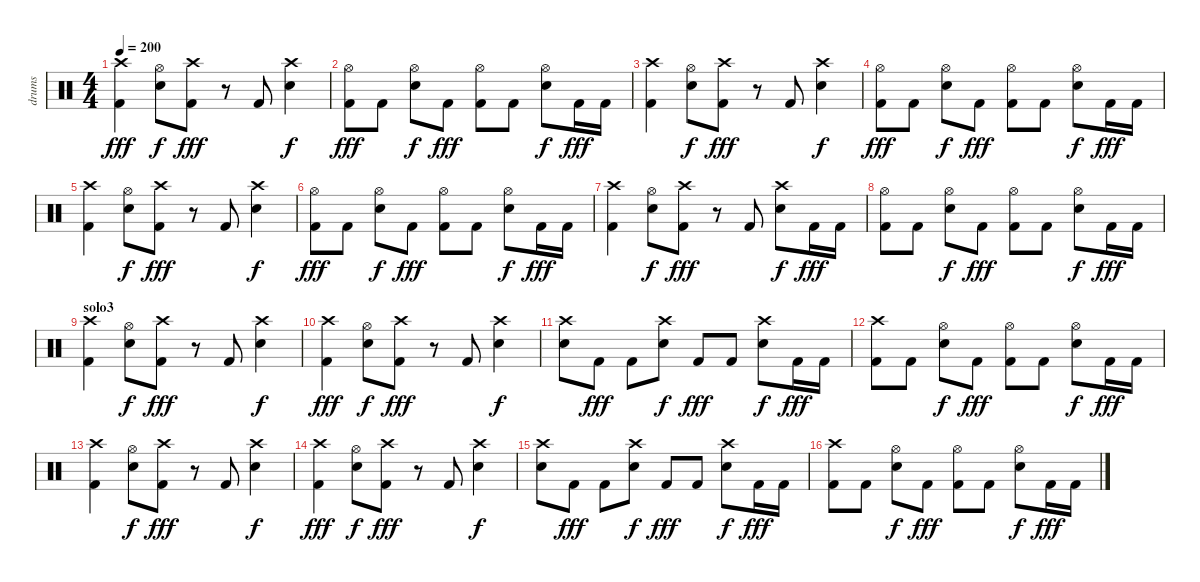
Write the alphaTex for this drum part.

\track ("drums" "drums") {instrument percussion}
\staff {score}
\articulation defaults
\ts (4 4)
\tempo 200
\clef neutral
\ks c
("Crash high (hit)" "Kick (hit) 2").4{dy fff} ("Hi-Hat (open)" "Snare (hit) 2").8{dy f} ("Crash high (hit)" "Kick (hit) 2").8{dy fff} r.8 "Kick (hit) 2".8 ("Crash high (hit)" "Snare (hit) 2").4{dy f} |
("Hi-Hat (open)" "Kick (hit) 2").8{dy fff} "Kick (hit) 2".8 ("Hi-Hat (open)" "Snare (hit) 2").8{dy f} "Kick (hit) 2".8{dy fff} ("Hi-Hat (open)" "Kick (hit) 2").8 "Kick (hit) 2".8 ("Hi-Hat (open)" "Snare (hit) 2").8{dy f} "Kick (hit) 2".16{dy fff} "Kick (hit) 2".16 |
("Crash high (hit)" "Kick (hit) 2").4 ("Hi-Hat (open)" "Snare (hit) 2").8{dy f} ("Crash high (hit)" "Kick (hit) 2").8{dy fff} r.8 "Kick (hit) 2".8 ("Crash high (hit)" "Snare (hit) 2").4{dy f} |
("Hi-Hat (open)" "Kick (hit) 2").8{dy fff} "Kick (hit) 2".8 ("Hi-Hat (open)" "Snare (hit) 2").8{dy f} "Kick (hit) 2".8{dy fff} ("Hi-Hat (open)" "Kick (hit) 2").8 "Kick (hit) 2".8 ("Hi-Hat (open)" "Snare (hit) 2").8{dy f} "Kick (hit) 2".16{dy fff} "Kick (hit) 2".16 |
("Crash high (hit)" "Kick (hit) 2").4 ("Hi-Hat (open)" "Snare (hit) 2").8{dy f} ("Crash high (hit)" "Kick (hit) 2").8{dy fff} r.8 "Kick (hit) 2".8 ("Crash high (hit)" "Snare (hit) 2").4{dy f} |
("Hi-Hat (open)" "Kick (hit) 2").8{dy fff} "Kick (hit) 2".8 ("Hi-Hat (open)" "Snare (hit) 2").8{dy f} "Kick (hit) 2".8{dy fff} ("Hi-Hat (open)" "Kick (hit) 2").8 "Kick (hit) 2".8 ("Hi-Hat (open)" "Snare (hit) 2").8{dy f} "Kick (hit) 2".16{dy fff} "Kick (hit) 2".16 |
("Crash high (hit)" "Kick (hit) 2").4 ("Hi-Hat (open)" "Snare (hit) 2").8{dy f} ("Crash high (hit)" "Kick (hit) 2").8{dy fff} r.8 "Kick (hit) 2".8 ("Crash high (hit)" "Snare (hit) 2").8{dy f} "Kick (hit) 2".16{dy fff} "Kick (hit) 2".16 |
("Hi-Hat (open)" "Kick (hit) 2").8 "Kick (hit) 2".8 ("Hi-Hat (open)" "Snare (hit) 2").8{dy f} "Kick (hit) 2".8{dy fff} ("Hi-Hat (open)" "Kick (hit) 2").8 "Kick (hit) 2".8 ("Hi-Hat (open)" "Snare (hit) 2").8{dy f} "Kick (hit) 2".16{dy fff} "Kick (hit) 2".16 |
\section ("" "solo3")
("Crash high (hit)" "Kick (hit) 2").4 ("Hi-Hat (open)" "Snare (hit) 2").8{dy f} ("Crash high (hit)" "Kick (hit) 2").8{dy fff} r.8 "Kick (hit) 2".8 ("Crash high (hit)" "Snare (hit) 2").4{dy f} |
("Crash high (hit)" "Kick (hit) 2").4{dy fff} ("Hi-Hat (open)" "Snare (hit) 2").8{dy f} ("Crash high (hit)" "Kick (hit) 2").8{dy fff} r.8 "Kick (hit) 2".8 ("Crash high (hit)" "Snare (hit) 2").4{dy f} |
("Crash high (hit)" "Snare (hit) 2").8 "Kick (hit) 2".8{dy fff} "Kick (hit) 2".8 ("Crash high (hit)" "Snare (hit) 2").8{dy f} "Kick (hit) 2".8{dy fff} "Kick (hit) 2".8 ("Crash high (hit)" "Snare (hit) 2").8{dy f} "Kick (hit) 2".16{dy fff} "Kick (hit) 2".16 |
("Crash high (hit)" "Kick (hit) 2").8 "Kick (hit) 2".8 ("Hi-Hat (open)" "Snare (hit) 2").8{dy f} "Kick (hit) 2".8{dy fff} ("Hi-Hat (open)" "Kick (hit) 2").8 "Kick (hit) 2".8 ("Hi-Hat (open)" "Snare (hit) 2").8{dy f} "Kick (hit) 2".16{dy fff} "Kick (hit) 2".16 |
("Crash high (hit)" "Kick (hit) 2").4 ("Hi-Hat (open)" "Snare (hit) 2").8{dy f} ("Crash high (hit)" "Kick (hit) 2").8{dy fff} r.8 "Kick (hit) 2".8 ("Crash high (hit)" "Snare (hit) 2").4{dy f} |
("Crash high (hit)" "Kick (hit) 2").4{dy fff} ("Hi-Hat (open)" "Snare (hit) 2").8{dy f} ("Crash high (hit)" "Kick (hit) 2").8{dy fff} r.8 "Kick (hit) 2".8 ("Crash high (hit)" "Snare (hit) 2").4{dy f} |
("Crash high (hit)" "Snare (hit) 2").8 "Kick (hit) 2".8{dy fff} "Kick (hit) 2".8 ("Crash high (hit)" "Snare (hit) 2").8{dy f} "Kick (hit) 2".8{dy fff} "Kick (hit) 2".8 ("Crash high (hit)" "Snare (hit) 2").8{dy f} "Kick (hit) 2".16{dy fff} "Kick (hit) 2".16 |
("Crash high (hit)" "Kick (hit) 2").8 "Kick (hit) 2".8 ("Hi-Hat (open)" "Snare (hit) 2").8{dy f} "Kick (hit) 2".8{dy fff} ("Hi-Hat (open)" "Kick (hit) 2").8 "Kick (hit) 2".8 ("Hi-Hat (open)" "Snare (hit) 2").8{dy f} "Kick (hit) 2".16{dy fff} "Kick (hit) 2".16
